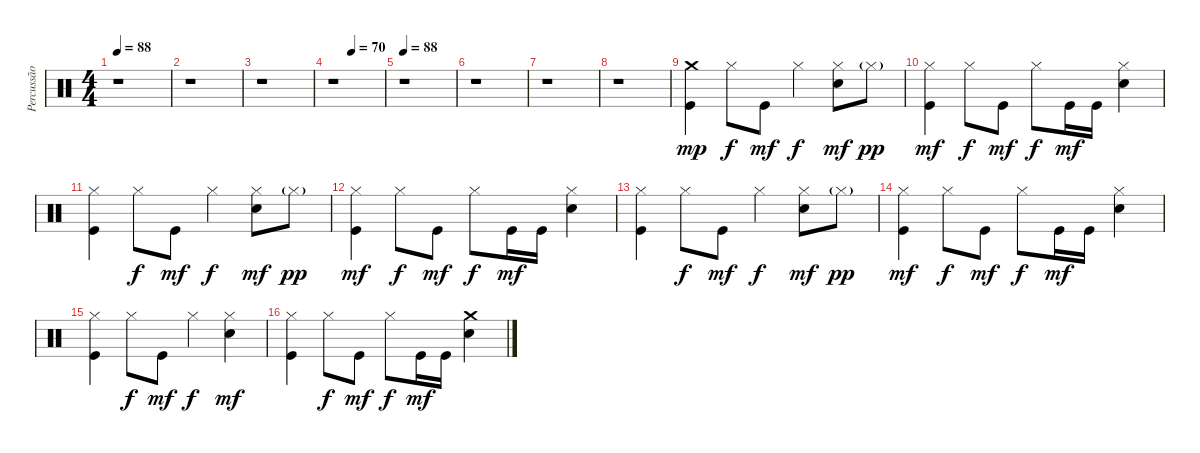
\track ("Percussão" "Percussão") {instrument percussion}
\staff {score}
\articulation defaults
\ts (4 4)
\tempo 88
\tempo 83
\tempo 88
\clef neutral
\ks c
r.1{dy mp} |
r.1 |
r.1 |
\tempo (70 0.375)
r.1 |
\tempo 88
r.1 |
r.1 |
r.1 |
r.1 |
("Crash medium (hit)" "Kick (hit)").4 "Hi-Hat (closed)".8{dy f} "Kick (hit)".8{dy mf} "Hi-Hat (closed)".4{dy f} ("Electric Snare (hit)" "Hi-Hat (closed)").8{dy mf} "Hi-Hat (closed)"{g}.8{dy pp} |
("Kick (hit)" "Hi-Hat (closed)").4{dy mf} "Hi-Hat (closed)".8{dy f} "Kick (hit)".8{dy mf} "Hi-Hat (closed)".8{dy f} "Kick (hit)".16{dy mf} "Kick (hit)".16 ("Electric Snare (hit)" "Hi-Hat (closed)").4 |
("Kick (hit)" "Hi-Hat (closed)").4 "Hi-Hat (closed)".8{dy f} "Kick (hit)".8{dy mf} "Hi-Hat (closed)".4{dy f} ("Electric Snare (hit)" "Hi-Hat (closed)").8{dy mf} "Hi-Hat (closed)"{g}.8{dy pp} |
("Kick (hit)" "Hi-Hat (closed)").4{dy mf} "Hi-Hat (closed)".8{dy f} "Kick (hit)".8{dy mf} "Hi-Hat (closed)".8{dy f} "Kick (hit)".16{dy mf} "Kick (hit)".16 ("Electric Snare (hit)" "Hi-Hat (closed)").4 |
("Kick (hit)" "Hi-Hat (closed)").4 "Hi-Hat (closed)".8{dy f} "Kick (hit)".8{dy mf} "Hi-Hat (closed)".4{dy f} ("Electric Snare (hit)" "Hi-Hat (closed)").8{dy mf} "Hi-Hat (closed)"{g}.8{dy pp} |
("Kick (hit)" "Hi-Hat (closed)").4{dy mf} "Hi-Hat (closed)".8{dy f} "Kick (hit)".8{dy mf} "Hi-Hat (closed)".8{dy f} "Kick (hit)".16{dy mf} "Kick (hit)".16 ("Electric Snare (hit)" "Hi-Hat (closed)").4 |
("Kick (hit)" "Hi-Hat (closed)").4 "Hi-Hat (closed)".8{dy f} "Kick (hit)".8{dy mf} "Hi-Hat (closed)".4{dy f} ("Electric Snare (hit)" "Hi-Hat (closed)").4{dy mf} |
("Kick (hit)" "Hi-Hat (closed)").4 "Hi-Hat (closed)".8{dy f} "Kick (hit)".8{dy mf} "Hi-Hat (closed)".8{dy f} "Kick (hit)".16{dy mf} "Kick (hit)".16 ("Crash medium (hit)" "Electric Snare (hit)").4
